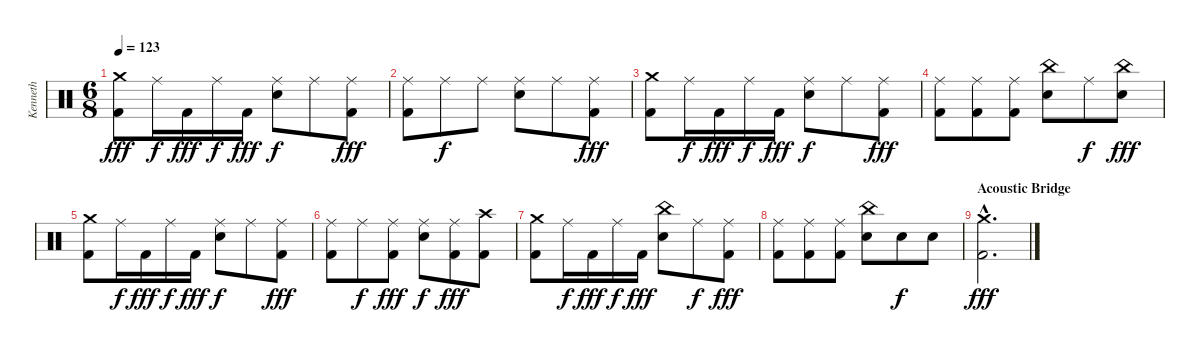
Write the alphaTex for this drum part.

\track ("Kenneth" "Kenneth") {instrument percussion}
\staff {score}
\articulation defaults
\ts (6 8)
\tempo 123
\clef neutral
\ks c
("Crash medium (hit)" "Kick (hit) 2").8{dy fff} "Ride (middle)".16{dy f} "Kick (hit) 2".16{dy fff} "Ride (middle)".16{dy f} "Kick (hit) 2".16{dy fff} ("Ride (middle)" "Snare (hit) 2").8{dy f} "Ride (middle)".8 ("Ride (middle)" "Kick (hit) 2").8{dy fff} |
("Ride (middle)" "Kick (hit) 2").8 "Ride (middle)".8{dy f} "Ride (middle)".8 ("Ride (middle)" "Snare (hit) 2").8 "Ride (middle)".8 ("Ride (middle)" "Kick (hit) 2").8{dy fff} |
("Crash medium (hit)" "Kick (hit) 2").8 "Ride (middle)".16{dy f} "Kick (hit) 2".16{dy fff} "Ride (middle)".16{dy f} "Kick (hit) 2".16{dy fff} ("Ride (middle)" "Snare (hit) 2").8{dy f} "Ride (middle)".8 ("Ride (middle)" "Kick (hit) 2").8{dy fff} |
("Ride (middle)" "Kick (hit) 2").8 ("Ride (middle)" "Kick (hit) 2").8 ("Ride (middle)" "Kick (hit) 2").8 ("China (hit)" "Snare (hit) 2").8 "Ride (middle)".8{dy f} ("China (hit)" "Snare (hit) 2").8{dy fff} |
("Crash medium (hit)" "Kick (hit) 2").8 "Ride (middle)".16{dy f} "Kick (hit) 2".16{dy fff} "Ride (middle)".16{dy f} "Kick (hit) 2".16{dy fff} ("Ride (middle)" "Snare (hit) 2").8{dy f} "Ride (middle)".8 ("Ride (middle)" "Kick (hit) 2").8{dy fff} |
("Ride (middle)" "Kick (hit) 2").8 "Ride (middle)".8{dy f} ("Ride (middle)" "Kick (hit) 2").8{dy fff} ("Ride (middle)" "Snare (hit) 2").8{dy f} ("Ride (middle)" "Kick (hit) 2").8{dy fff} ("Crash high (hit)" "Kick (hit) 2").8 |
("Crash medium (hit)" "Kick (hit) 2").8 "Ride (middle)".16{dy f} "Kick (hit) 2".16{dy fff} "Ride (middle)".16{dy f} "Kick (hit) 2".16{dy fff} ("China (hit)" "Snare (hit) 2").8 "Ride (middle)".8{dy f} ("Ride (middle)" "Kick (hit) 2").8{dy fff} |
("Ride (middle)" "Kick (hit) 2").8 ("Ride (middle)" "Kick (hit) 2").8 ("Ride (middle)" "Kick (hit) 2").8 ("China (hit)" "Snare (hit) 2").8 "Snare (hit) 2".8{dy f} "Snare (hit) 2".8 |
\section ("" "Acoustic Bridge")
("Crash medium (hit)"{hac} "Kick (hit) 2"{hac}).2{d dy fff}
